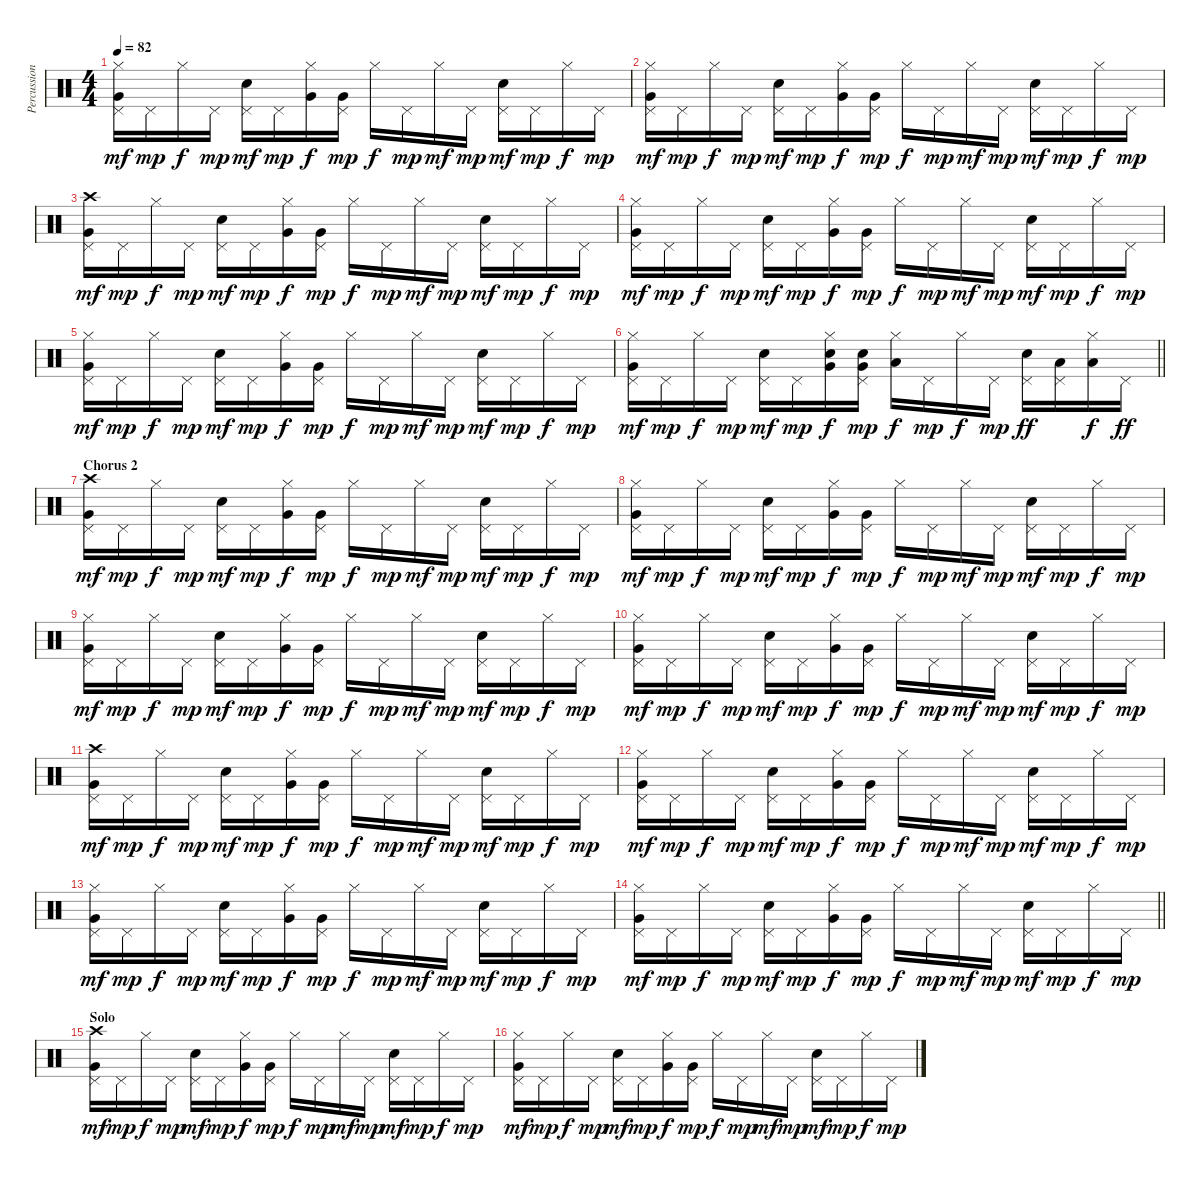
\track ("Percussion" "Percussion") {instrument percussion}
\staff {score}
\articulation defaults
\ts (4 4)
\tempo 82
\clef neutral
\ks c
("Hi-Hat (closed)" "Very Low Tom (hit)" "Pedal Hi-Hat (hit)").16{dy mf} "Pedal Hi-Hat (hit)".16{dy mp} "Hi-Hat (closed)".16{dy f} "Pedal Hi-Hat (hit)".16{dy mp} ("Electric Snare (hit)" "Pedal Hi-Hat (hit)").16{dy mf} "Pedal Hi-Hat (hit)".16{dy mp} ("Hi-Hat (closed)" "Very Low Tom (hit)").16{dy f} ("Very Low Tom (hit)" "Pedal Hi-Hat (hit)").16{dy mp} "Hi-Hat (closed)".16{dy f} "Pedal Hi-Hat (hit)".16{dy mp} "Hi-Hat (closed)".16{dy mf} "Pedal Hi-Hat (hit)".16{dy mp} ("Electric Snare (hit)" "Pedal Hi-Hat (hit)").16{dy mf} "Pedal Hi-Hat (hit)".16{dy mp} "Hi-Hat (closed)".16{dy f} "Pedal Hi-Hat (hit)".16{dy mp} |
("Hi-Hat (closed)" "Very Low Tom (hit)" "Pedal Hi-Hat (hit)").16{dy mf} "Pedal Hi-Hat (hit)".16{dy mp} "Hi-Hat (closed)".16{dy f} "Pedal Hi-Hat (hit)".16{dy mp} ("Electric Snare (hit)" "Pedal Hi-Hat (hit)").16{dy mf} "Pedal Hi-Hat (hit)".16{dy mp} ("Hi-Hat (closed)" "Very Low Tom (hit)").16{dy f} ("Very Low Tom (hit)" "Pedal Hi-Hat (hit)").16{dy mp} "Hi-Hat (closed)".16{dy f} "Pedal Hi-Hat (hit)".16{dy mp} "Hi-Hat (closed)".16{dy mf} "Pedal Hi-Hat (hit)".16{dy mp} ("Electric Snare (hit)" "Pedal Hi-Hat (hit)").16{dy mf} "Pedal Hi-Hat (hit)".16{dy mp} "Hi-Hat (closed)".16{dy f} "Pedal Hi-Hat (hit)".16{dy mp} |
("Crash high (hit)" "Very Low Tom (hit)" "Pedal Hi-Hat (hit)").16{dy mf} "Pedal Hi-Hat (hit)".16{dy mp} "Hi-Hat (closed)".16{dy f} "Pedal Hi-Hat (hit)".16{dy mp} ("Electric Snare (hit)" "Pedal Hi-Hat (hit)").16{dy mf} "Pedal Hi-Hat (hit)".16{dy mp} ("Hi-Hat (closed)" "Very Low Tom (hit)").16{dy f} ("Very Low Tom (hit)" "Pedal Hi-Hat (hit)").16{dy mp} "Hi-Hat (closed)".16{dy f} "Pedal Hi-Hat (hit)".16{dy mp} "Hi-Hat (closed)".16{dy mf} "Pedal Hi-Hat (hit)".16{dy mp} ("Electric Snare (hit)" "Pedal Hi-Hat (hit)").16{dy mf} "Pedal Hi-Hat (hit)".16{dy mp} "Hi-Hat (closed)".16{dy f} "Pedal Hi-Hat (hit)".16{dy mp} |
("Hi-Hat (closed)" "Very Low Tom (hit)" "Pedal Hi-Hat (hit)").16{dy mf} "Pedal Hi-Hat (hit)".16{dy mp} "Hi-Hat (closed)".16{dy f} "Pedal Hi-Hat (hit)".16{dy mp} ("Electric Snare (hit)" "Pedal Hi-Hat (hit)").16{dy mf} "Pedal Hi-Hat (hit)".16{dy mp} ("Hi-Hat (closed)" "Very Low Tom (hit)").16{dy f} ("Very Low Tom (hit)" "Pedal Hi-Hat (hit)").16{dy mp} "Hi-Hat (closed)".16{dy f} "Pedal Hi-Hat (hit)".16{dy mp} "Hi-Hat (closed)".16{dy mf} "Pedal Hi-Hat (hit)".16{dy mp} ("Electric Snare (hit)" "Pedal Hi-Hat (hit)").16{dy mf} "Pedal Hi-Hat (hit)".16{dy mp} "Hi-Hat (closed)".16{dy f} "Pedal Hi-Hat (hit)".16{dy mp} |
("Hi-Hat (closed)" "Very Low Tom (hit)" "Pedal Hi-Hat (hit)").16{dy mf} "Pedal Hi-Hat (hit)".16{dy mp} "Hi-Hat (closed)".16{dy f} "Pedal Hi-Hat (hit)".16{dy mp} ("Electric Snare (hit)" "Pedal Hi-Hat (hit)").16{dy mf} "Pedal Hi-Hat (hit)".16{dy mp} ("Hi-Hat (closed)" "Very Low Tom (hit)").16{dy f} ("Very Low Tom (hit)" "Pedal Hi-Hat (hit)").16{dy mp} "Hi-Hat (closed)".16{dy f} "Pedal Hi-Hat (hit)".16{dy mp} "Hi-Hat (closed)".16{dy mf} "Pedal Hi-Hat (hit)".16{dy mp} ("Electric Snare (hit)" "Pedal Hi-Hat (hit)").16{dy mf} "Pedal Hi-Hat (hit)".16{dy mp} "Hi-Hat (closed)".16{dy f} "Pedal Hi-Hat (hit)".16{dy mp} |
\barLineRight lightlight
("Hi-Hat (closed)" "Very Low Tom (hit)" "Pedal Hi-Hat (hit)").16{dy mf} "Pedal Hi-Hat (hit)".16{dy mp} "Hi-Hat (closed)".16{dy f} "Pedal Hi-Hat (hit)".16{dy mp} ("Electric Snare (hit)" "Pedal Hi-Hat (hit)").16{dy mf} "Pedal Hi-Hat (hit)".16{dy mp} ("Hi-Hat (closed)" "Electric Snare (hit)" "Very Low Tom (hit)").16{dy f} ("Electric Snare (hit)" "Very Low Tom (hit)" "Pedal Hi-Hat (hit)").16{dy mp} ("Hi-Hat (closed)" "Low Tom (hit)").16{dy f} "Pedal Hi-Hat (hit)".16{dy mp} "Hi-Hat (closed)".16{dy f} "Pedal Hi-Hat (hit)".16{dy mp} ("Electric Snare (hit)" "Pedal Hi-Hat (hit)").16{dy ff} ("Low Tom (hit)" "Pedal Hi-Hat (hit)").16 ("Hi-Hat (closed)" "Low Tom (hit)").16{dy f} "Pedal Hi-Hat (hit)".16{dy ff} |
\section ("" "Chorus 2")
("Crash high (hit)" "Very Low Tom (hit)" "Pedal Hi-Hat (hit)").16{dy mf} "Pedal Hi-Hat (hit)".16{dy mp} "Hi-Hat (closed)".16{dy f} "Pedal Hi-Hat (hit)".16{dy mp} ("Electric Snare (hit)" "Pedal Hi-Hat (hit)").16{dy mf} "Pedal Hi-Hat (hit)".16{dy mp} ("Hi-Hat (closed)" "Very Low Tom (hit)").16{dy f} ("Very Low Tom (hit)" "Pedal Hi-Hat (hit)").16{dy mp} "Hi-Hat (closed)".16{dy f} "Pedal Hi-Hat (hit)".16{dy mp} "Hi-Hat (closed)".16{dy mf} "Pedal Hi-Hat (hit)".16{dy mp} ("Electric Snare (hit)" "Pedal Hi-Hat (hit)").16{dy mf} "Pedal Hi-Hat (hit)".16{dy mp} "Hi-Hat (closed)".16{dy f} "Pedal Hi-Hat (hit)".16{dy mp} |
("Hi-Hat (closed)" "Very Low Tom (hit)" "Pedal Hi-Hat (hit)").16{dy mf} "Pedal Hi-Hat (hit)".16{dy mp} "Hi-Hat (closed)".16{dy f} "Pedal Hi-Hat (hit)".16{dy mp} ("Electric Snare (hit)" "Pedal Hi-Hat (hit)").16{dy mf} "Pedal Hi-Hat (hit)".16{dy mp} ("Hi-Hat (closed)" "Very Low Tom (hit)").16{dy f} ("Very Low Tom (hit)" "Pedal Hi-Hat (hit)").16{dy mp} "Hi-Hat (closed)".16{dy f} "Pedal Hi-Hat (hit)".16{dy mp} "Hi-Hat (closed)".16{dy mf} "Pedal Hi-Hat (hit)".16{dy mp} ("Electric Snare (hit)" "Pedal Hi-Hat (hit)").16{dy mf} "Pedal Hi-Hat (hit)".16{dy mp} "Hi-Hat (closed)".16{dy f} "Pedal Hi-Hat (hit)".16{dy mp} |
("Hi-Hat (closed)" "Very Low Tom (hit)" "Pedal Hi-Hat (hit)").16{dy mf} "Pedal Hi-Hat (hit)".16{dy mp} "Hi-Hat (closed)".16{dy f} "Pedal Hi-Hat (hit)".16{dy mp} ("Electric Snare (hit)" "Pedal Hi-Hat (hit)").16{dy mf} "Pedal Hi-Hat (hit)".16{dy mp} ("Hi-Hat (closed)" "Very Low Tom (hit)").16{dy f} ("Very Low Tom (hit)" "Pedal Hi-Hat (hit)").16{dy mp} "Hi-Hat (closed)".16{dy f} "Pedal Hi-Hat (hit)".16{dy mp} "Hi-Hat (closed)".16{dy mf} "Pedal Hi-Hat (hit)".16{dy mp} ("Electric Snare (hit)" "Pedal Hi-Hat (hit)").16{dy mf} "Pedal Hi-Hat (hit)".16{dy mp} "Hi-Hat (closed)".16{dy f} "Pedal Hi-Hat (hit)".16{dy mp} |
("Hi-Hat (closed)" "Very Low Tom (hit)" "Pedal Hi-Hat (hit)").16{dy mf} "Pedal Hi-Hat (hit)".16{dy mp} "Hi-Hat (closed)".16{dy f} "Pedal Hi-Hat (hit)".16{dy mp} ("Electric Snare (hit)" "Pedal Hi-Hat (hit)").16{dy mf} "Pedal Hi-Hat (hit)".16{dy mp} ("Hi-Hat (closed)" "Very Low Tom (hit)").16{dy f} ("Very Low Tom (hit)" "Pedal Hi-Hat (hit)").16{dy mp} "Hi-Hat (closed)".16{dy f} "Pedal Hi-Hat (hit)".16{dy mp} "Hi-Hat (closed)".16{dy mf} "Pedal Hi-Hat (hit)".16{dy mp} ("Electric Snare (hit)" "Pedal Hi-Hat (hit)").16{dy mf} "Pedal Hi-Hat (hit)".16{dy mp} "Hi-Hat (closed)".16{dy f} "Pedal Hi-Hat (hit)".16{dy mp} |
("Crash high (hit)" "Very Low Tom (hit)" "Pedal Hi-Hat (hit)").16{dy mf} "Pedal Hi-Hat (hit)".16{dy mp} "Hi-Hat (closed)".16{dy f} "Pedal Hi-Hat (hit)".16{dy mp} ("Electric Snare (hit)" "Pedal Hi-Hat (hit)").16{dy mf} "Pedal Hi-Hat (hit)".16{dy mp} ("Hi-Hat (closed)" "Very Low Tom (hit)").16{dy f} ("Very Low Tom (hit)" "Pedal Hi-Hat (hit)").16{dy mp} "Hi-Hat (closed)".16{dy f} "Pedal Hi-Hat (hit)".16{dy mp} "Hi-Hat (closed)".16{dy mf} "Pedal Hi-Hat (hit)".16{dy mp} ("Electric Snare (hit)" "Pedal Hi-Hat (hit)").16{dy mf} "Pedal Hi-Hat (hit)".16{dy mp} "Hi-Hat (closed)".16{dy f} "Pedal Hi-Hat (hit)".16{dy mp} |
("Hi-Hat (closed)" "Very Low Tom (hit)" "Pedal Hi-Hat (hit)").16{dy mf} "Pedal Hi-Hat (hit)".16{dy mp} "Hi-Hat (closed)".16{dy f} "Pedal Hi-Hat (hit)".16{dy mp} ("Electric Snare (hit)" "Pedal Hi-Hat (hit)").16{dy mf} "Pedal Hi-Hat (hit)".16{dy mp} ("Hi-Hat (closed)" "Very Low Tom (hit)").16{dy f} ("Very Low Tom (hit)" "Pedal Hi-Hat (hit)").16{dy mp} "Hi-Hat (closed)".16{dy f} "Pedal Hi-Hat (hit)".16{dy mp} "Hi-Hat (closed)".16{dy mf} "Pedal Hi-Hat (hit)".16{dy mp} ("Electric Snare (hit)" "Pedal Hi-Hat (hit)").16{dy mf} "Pedal Hi-Hat (hit)".16{dy mp} "Hi-Hat (closed)".16{dy f} "Pedal Hi-Hat (hit)".16{dy mp} |
("Hi-Hat (closed)" "Very Low Tom (hit)" "Pedal Hi-Hat (hit)").16{dy mf} "Pedal Hi-Hat (hit)".16{dy mp} "Hi-Hat (closed)".16{dy f} "Pedal Hi-Hat (hit)".16{dy mp} ("Electric Snare (hit)" "Pedal Hi-Hat (hit)").16{dy mf} "Pedal Hi-Hat (hit)".16{dy mp} ("Hi-Hat (closed)" "Very Low Tom (hit)").16{dy f} ("Very Low Tom (hit)" "Pedal Hi-Hat (hit)").16{dy mp} "Hi-Hat (closed)".16{dy f} "Pedal Hi-Hat (hit)".16{dy mp} "Hi-Hat (closed)".16{dy mf} "Pedal Hi-Hat (hit)".16{dy mp} ("Electric Snare (hit)" "Pedal Hi-Hat (hit)").16{dy mf} "Pedal Hi-Hat (hit)".16{dy mp} "Hi-Hat (closed)".16{dy f} "Pedal Hi-Hat (hit)".16{dy mp} |
\barLineRight lightlight
("Hi-Hat (closed)" "Very Low Tom (hit)" "Pedal Hi-Hat (hit)").16{dy mf} "Pedal Hi-Hat (hit)".16{dy mp} "Hi-Hat (closed)".16{dy f} "Pedal Hi-Hat (hit)".16{dy mp} ("Electric Snare (hit)" "Pedal Hi-Hat (hit)").16{dy mf} "Pedal Hi-Hat (hit)".16{dy mp} ("Hi-Hat (closed)" "Very Low Tom (hit)").16{dy f} ("Very Low Tom (hit)" "Pedal Hi-Hat (hit)").16{dy mp} "Hi-Hat (closed)".16{dy f} "Pedal Hi-Hat (hit)".16{dy mp} "Hi-Hat (closed)".16{dy mf} "Pedal Hi-Hat (hit)".16{dy mp} ("Electric Snare (hit)" "Pedal Hi-Hat (hit)").16{dy mf} "Pedal Hi-Hat (hit)".16{dy mp} "Hi-Hat (closed)".16{dy f} "Pedal Hi-Hat (hit)".16{dy mp} |
\section ("" "Solo")
("Crash high (hit)" "Very Low Tom (hit)" "Pedal Hi-Hat (hit)").16{dy mf} "Pedal Hi-Hat (hit)".16{dy mp} "Hi-Hat (closed)".16{dy f} "Pedal Hi-Hat (hit)".16{dy mp} ("Electric Snare (hit)" "Pedal Hi-Hat (hit)").16{dy mf} "Pedal Hi-Hat (hit)".16{dy mp} ("Hi-Hat (closed)" "Very Low Tom (hit)").16{dy f} ("Very Low Tom (hit)" "Pedal Hi-Hat (hit)").16{dy mp} "Hi-Hat (closed)".16{dy f} "Pedal Hi-Hat (hit)".16{dy mp} "Hi-Hat (closed)".16{dy mf} "Pedal Hi-Hat (hit)".16{dy mp} ("Electric Snare (hit)" "Pedal Hi-Hat (hit)").16{dy mf} "Pedal Hi-Hat (hit)".16{dy mp} "Hi-Hat (closed)".16{dy f} "Pedal Hi-Hat (hit)".16{dy mp} |
("Hi-Hat (closed)" "Very Low Tom (hit)" "Pedal Hi-Hat (hit)").16{dy mf} "Pedal Hi-Hat (hit)".16{dy mp} "Hi-Hat (closed)".16{dy f} "Pedal Hi-Hat (hit)".16{dy mp} ("Electric Snare (hit)" "Pedal Hi-Hat (hit)").16{dy mf} "Pedal Hi-Hat (hit)".16{dy mp} ("Hi-Hat (closed)" "Very Low Tom (hit)").16{dy f} ("Very Low Tom (hit)" "Pedal Hi-Hat (hit)").16{dy mp} "Hi-Hat (closed)".16{dy f} "Pedal Hi-Hat (hit)".16{dy mp} "Hi-Hat (closed)".16{dy mf} "Pedal Hi-Hat (hit)".16{dy mp} ("Electric Snare (hit)" "Pedal Hi-Hat (hit)").16{dy mf} "Pedal Hi-Hat (hit)".16{dy mp} "Hi-Hat (closed)".16{dy f} "Pedal Hi-Hat (hit)".16{dy mp}
